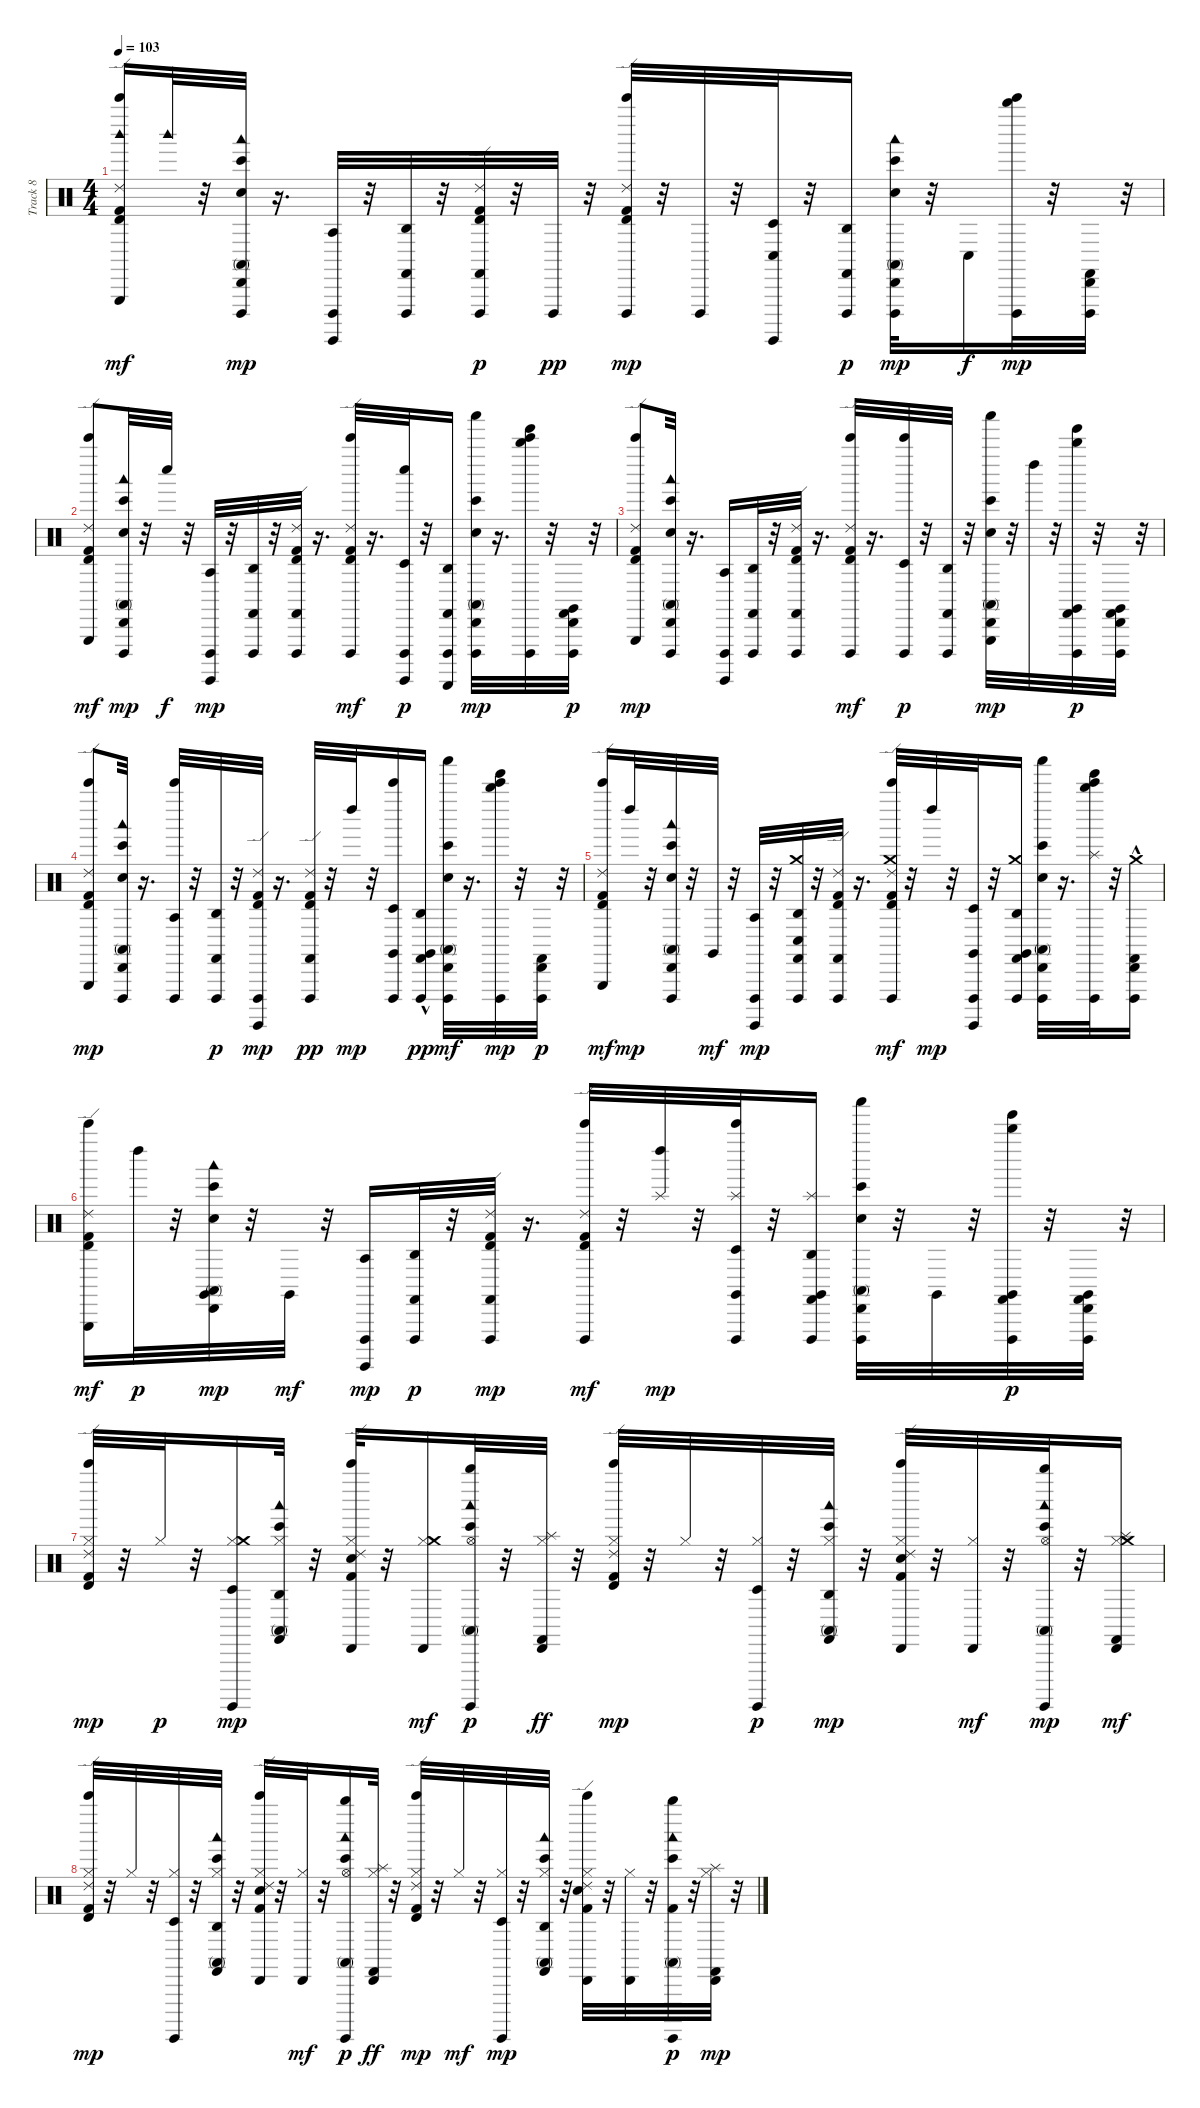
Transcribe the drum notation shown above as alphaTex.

\track ("Track 8" "Track 8") {instrument percussion}
\staff {score}
\articulation defaults
\ts (4 4)
\tempo 103
\clef neutral
\ks c
("Ride (edge) 2" "Timbale high (hit)" "Kick (hit) 2" "Woodblock high (hit)" "Triangle (hit)" "Bell Tree (hit)").16{dy mf} "Woodblock high (hit)".32 r.32 ("Bongo High (hit)" "Cabasa (hit)" "Conga high (mute)" "Woodblock low (hit)" "Hand Clap (hit)" "Cuica (open)").32{dy mp} r.16{d} ("Agogo tow (hit)" "Cuica (open)" "Surdo (hit)").32 r.32 ("Agogo high (hit)" "Cuica (open)" "Castanets (hit)").32 r.32 ("Ride (edge) 2" "Timbale high (hit)" "Kick (hit) 2" "Cuica (open)" "Castanets (hit)").32{dy p} r.32 "Cuica (open)".32{dy pp} r.32 ("Ride (edge) 2" "Timbale high (hit)" "Kick (hit) 2" "Cuica (open)" "Bell Tree (hit)").32{dy mp} r.32 "Cuica (open)".32 r.32 ("Timbale low (hit)" "Conga low (hit)" "Surdo (hit)").32 r.32 ("Agogo high (hit)" "Cuica (open)" "Castanets (hit)").16{dy p} ("Bongo High (hit)" "Conga high (mute)" "Cabasa (hit)" "Woodblock low (hit)" "Electric Snare (hit)" "Cuica (open)").32{dy mp} r.32 "Conga low (hit)".16{dy f} ("Whistle high (hit)" "Cuica (open)" "Bell Tree (hit)").32{dy mp} r.32 ("Cabasa (hit)" "Cuica (open)" "Castanets (hit)").32 r.32 |
("Ride (edge) 2" "Timbale high (hit)" "Kick (hit) 2" "Triangle (hit)" "Bell Tree (hit)").8{dy mf} ("Bongo High (hit)" "Cabasa (hit)" "Conga high (mute)" "Woodblock low (hit)" "Hand Clap (hit)" "Cuica (open)").32{dy mp} r.32 "Whistle low (hit)".32{dy f} r.32 ("Agogo tow (hit)" "Cuica (open)" "Surdo (hit)").32{dy mp} r.32 ("Agogo high (hit)" "Cuica (open)" "Castanets (hit)").32 r.32 ("Ride (edge) 2" "Timbale high (hit)" "Kick (hit) 2" "Cuica (open)" "Castanets (hit)").32 r.16{d} ("Ride (edge) 2" "Timbale high (hit)" "Kick (hit) 2" "Cuica (open)" "Bell Tree (hit)").32{dy mf} r.16{d} ("Timbale low (hit)" "Cuica (open)" "Whistle low (hit)" "Surdo (hit)").32{dy p} r.32 ("Agogo high (hit)" "Cuica (open)" "Guiro (scrap-return)" "Castanets (hit)").16 ("Bongo High (hit)" "Cabasa (hit)" "Conga high (mute)" "Shaker (hit)" "Electric Snare (hit)" "Cuica (open)").32{dy mp} r.16{d} ("Whistle high (hit)" "Tinkle Bell (hit)" "Cuica (open)" "Bell Tree (hit)").32 r.32 ("Cabasa (hit)" "Cuica (open)" "Claves (hit)" "Castanets (hit)").32{dy p} r.32 |
("Ride (edge) 2" "Timbale high (hit)" "Kick (hit) 2" "Triangle (hit)" "Bell Tree (hit)").8{dy mp} ("Bongo High (hit)" "Cabasa (hit)" "Conga high (mute)" "Woodblock low (hit)" "Hand Clap (hit)" "Cuica (open)").32 r.16{d} ("Agogo tow (hit)" "Cuica (open)" "Surdo (hit)").16 ("Agogo high (hit)" "Cuica (open)" "Castanets (hit)").32 r.32 ("Ride (edge) 2" "Timbale high (hit)" "Kick (hit) 2" "Cuica (open)" "Castanets (hit)").32 r.16{d} ("Ride (edge) 2" "Timbale high (hit)" "Kick (hit) 2" "Cuica (open)" "Bell Tree (hit)").32{dy mf} r.16{d} ("Timbale low (hit)" "Cuica (open)" "Bell Tree (hit)").32{dy p} r.32 ("Agogo high (hit)" "Cuica (open)" "Castanets (hit)").32 r.32 ("Bongo High (hit)" "Cabasa (hit)" "Conga high (mute)" "Shaker (hit)" "Electric Snare (hit)" "Triangle (hit)").32{dy mp} r.32 "Left Maraca (hit)".32 r.32 ("Whistle high (hit)" "Tinkle Bell (hit)" "Cuica (open)" "Claves (hit)" "Castanets (hit)").32{dy p} r.32 ("Cabasa (hit)" "Cuica (open)" "Claves (hit)" "Castanets (hit)").32 r.32 |
("Ride (edge) 2" "Timbale high (hit)" "Kick (hit) 2" "Triangle (hit)" "Bell Tree (hit)").8{dy mp} ("Conga high (mute)" "Cabasa (hit)" "Bongo High (hit)" "Woodblock low (hit)" "Hand Clap (hit)" "Cuica (open)").32 r.16{d} ("Agogo tow (hit)" "Cuica (open)" "Bell Tree (hit)").32 r.32 ("Agogo high (hit)" "Cuica (open)" "Castanets (hit)").32{dy p} r.32 ("Ride (edge) 2" "Timbale high (hit)" "Kick (hit) 2" "Cuica (open)" "Surdo (hit)").32{dy mp} r.16{d} ("Ride (edge) 2" "Timbale high (hit)" "Kick (hit) 2" "Cuica (open)" "Castanets (hit)").32{dy pp} r.32 "Left Maraca (hit)".32{dy mp} r.32 ("Timbale low (hit)" "Cuica (open)" "Claves (hit)" "Bell Tree (hit)").16 ("Agogo high (hit)" "Cuica (open)" "Claves (hit)"{hac} "Castanets (hit)").16{dy pp} ("Conga high (mute)" "Cabasa (hit)" "Bongo High (hit)" "Shaker (hit)" "Electric Snare (hit)" "Cuica (open)").32{dy mf} r.16{d} ("Whistle high (hit)" "Tinkle Bell (hit)" "Cuica (open)" "Bell Tree (hit)").32{dy mp} r.32 ("Cabasa (hit)" "Cuica (open)" "Castanets (hit)").32{dy p} r.32 |
("Ride (edge) 2" "Timbale high (hit)" "Kick (hit) 2" "Triangle (hit)" "Bell Tree (hit)").16{dy mf} "Left Maraca (hit)".32{dy mp} r.32 ("Conga high (mute)" "Cabasa (hit)" "Bongo High (hit)" "Woodblock low (hit)" "Hand Clap (hit)" "Cuica (open)").32 r.32 "Claves (hit)".32{dy mf} r.32 ("Agogo tow (hit)" "Cuica (open)" "Surdo (hit)").32{dy mp} r.32 ("Agogo high (hit)" "Cuica (open)" "Crash medium (hit)" "Conga low (hit)" "Castanets (hit)").32 r.32 ("Ride (edge) 2" "Timbale high (hit)" "Kick (hit) 2" "Cuica (open)" "Castanets (hit)").32 r.16{d} ("Ride (edge) 2" "Timbale high (hit)" "Kick (hit) 2" "Cuica (open)" "Crash medium (hit)" "Bell Tree (hit)").32{dy mf} r.32 "Left Maraca (hit)".32{dy mp} r.32 ("Timbale low (hit)" "Cuica (open)" "Claves (hit)" "Surdo (hit)").32 r.32 ("Agogo high (hit)" "Cuica (open)" "Crash medium (hit)" "Claves (hit)" "Castanets (hit)").16 ("Bongo High (hit)" "Cabasa (hit)" "Conga high (mute)" "Shaker (hit)" "Electric Snare (hit)" "Cuica (open)").32 r.16{d} ("Whistle high (hit)" "Tinkle Bell (hit)" "Cuica (open)" "Splash (hit)" "Bell Tree (hit)").32 r.32 ("Cabasa (hit)" "Cuica (open)"{hac} "Crash medium (hit)" "Castanets (hit)").16 |
("Ride (edge) 2" "Timbale high (hit)" "Kick (hit) 2" "Triangle (hit)" "Bell Tree (hit)").16{dy mf} "Left Maraca (hit)".32{dy p} r.32 ("Bongo High (hit)" "Cabasa (hit)" "Conga high (mute)" "Woodblock low (hit)" "Hand Clap (hit)" "Claves (hit)").32{dy mp} r.32 "Claves (hit)".32{dy mf} r.32 ("Agogo tow (hit)" "Cuica (open)" "Surdo (hit)").16{dy mp} ("Agogo high (hit)" "Cuica (open)" "Castanets (hit)").32{dy p} r.32 ("Ride (edge) 2" "Timbale high (hit)" "Kick (hit) 2" "Cuica (open)" "Castanets (hit)").32{dy mp} r.16{d} ("Ride (edge) 2" "Timbale high (hit)" "Kick (hit) 2" "Cuica (open)" "Bell Tree (hit)").32{dy mf} r.32 ("Splash (hit)" "Left Maraca (hit)").32{dy mp} r.32 ("Timbale low (hit)" "Cuica (open)" "Splash (hit)" "Claves (hit)" "Bell Tree (hit)").32 r.32 ("Agogo high (hit)" "Cuica (open)" "Splash (hit)" "Claves (hit)" "Castanets (hit)").16 ("Bongo High (hit)" "Cabasa (hit)" "Conga high (mute)" "Shaker (hit)" "Electric Snare (hit)" "Cuica (open)").32 r.32 "Claves (hit)".32 r.32 ("Whistle high (hit)" "Tinkle Bell (hit)" "Cuica (open)" "Claves (hit)" "Castanets (hit)").32{dy p} r.32 ("Cabasa (hit)" "Cuica (open)" "Claves (hit)" "Castanets (hit)").32 r.32 |
("Timbale high (hit)" "Ride (edge) 2" "Kick (hit) 2" "Bell Tree (hit)" "Hi-Hat (closed)").32{dy mp} r.32 "Hi-Hat (closed)".32{dy p} r.32 ("Timbale low (hit)" "Surdo (hit)" "Hi-Hat (closed)" "Crash medium (hit)").16{dy mp} ("Agogo high (hit)" "Bongo High (hit)" "Conga high (mute)" "Woodblock low (hit)" "Castanets (hit)" "Hi-Hat (closed)").32 r.32 ("Cabasa (hit)" "Ride (edge) 2" "Kick (hit) 2" "Electric Snare (hit)" "Bell Tree (hit)" "Hi-Hat (closed)").32 r.32 ("Cabasa (hit)" "Hi-Hat (closed)" "Crash medium (hit)").16{dy mf} ("Whistle high (hit)" "Bongo High (hit)" "Conga high (mute)" "Woodblock low (hit)" "Surdo (hit)" "Hi-Hat (open)").32{dy p} r.32 ("Cabasa (hit)" "Castanets (hit)" "Hi-Hat (closed)" "Splash (hit)").32{dy ff} r.32 ("Timbale high (hit)" "Ride (edge) 2" "Kick (hit) 2" "Bell Tree (hit)" "Hi-Hat (closed)").32{dy mp} r.32 "Hi-Hat (closed)".32 r.32 ("Timbale low (hit)" "Surdo (hit)" "Hi-Hat (closed)").32{dy p} r.32 ("Agogo high (hit)" "Bongo High (hit)" "Conga high (mute)" "Woodblock low (hit)" "Castanets (hit)" "Hi-Hat (closed)").32{dy mp} r.32 ("Cabasa (hit)" "Ride (edge) 2" "Kick (hit) 2" "Electric Snare (hit)" "Bell Tree (hit)" "Hi-Hat (closed)").32 r.32 ("Cabasa (hit)" "Hi-Hat (closed)").32{dy mf} r.32 ("Whistle high (hit)" "Bongo High (hit)" "Conga high (mute)" "Woodblock low (hit)" "Surdo (hit)" "Hi-Hat (open)").32{dy mp} r.32 ("Cabasa (hit)" "Castanets (hit)" "Hi-Hat (closed)" "Splash (hit)" "Crash medium (hit)").16{dy mf} |
("Timbale high (hit)" "Ride (edge) 2" "Kick (hit) 2" "Bell Tree (hit)" "Hi-Hat (closed)").32{dy mp} r.32 "Hi-Hat (closed)".32 r.32 ("Timbale low (hit)" "Surdo (hit)" "Hi-Hat (closed)").32 r.32 ("Agogo high (hit)" "Bongo High (hit)" "Conga high (mute)" "Woodblock low (hit)" "Castanets (hit)" "Hi-Hat (closed)").32 r.32 ("Cabasa (hit)" "Ride (edge) 2" "Kick (hit) 2" "Electric Snare (hit)" "Bell Tree (hit)" "Hi-Hat (closed)").32 r.32 ("Cabasa (hit)" "Hi-Hat (closed)").32{dy mf} r.32 ("Whistle high (hit)" "Bongo High (hit)" "Conga high (mute)" "Woodblock low (hit)" "Surdo (hit)" "Hi-Hat (open)").16{dy p} ("Cabasa (hit)" "Castanets (hit)" "Hi-Hat (closed)" "Splash (hit)").32{dy ff} r.32 ("Timbale high (hit)" "Ride (edge) 2" "Kick (hit) 2" "Bell Tree (hit)" "Hi-Hat (closed)").32{dy mp} r.32 "Hi-Hat (closed)".32{dy mf} r.32 ("Timbale low (hit)" "Surdo (hit)" "Hi-Hat (closed)").32{dy mp} r.32 ("Agogo high (hit)" "Bongo High (hit)" "Conga high (mute)" "Woodblock low (hit)" "Castanets (hit)" "Hi-Hat (closed)").32 r.32 ("Cabasa (hit)" "Ride (edge) 2" "Kick (hit) 2" "Electric Snare (hit)" "Bell Tree (hit)" "Hi-Hat (closed)").32 r.32 ("Cabasa (hit)" "Hi-Hat (closed)").32 r.32 ("Whistle high (hit)" "Bongo High (hit)" "Conga high (mute)" "Kick (hit) 2" "Woodblock low (hit)" "Surdo (hit)").32{dy p} r.32 ("Cabasa (hit)" "Castanets (hit)" "Hi-Hat (closed)" "Splash (hit)").32{dy mp} r.32
